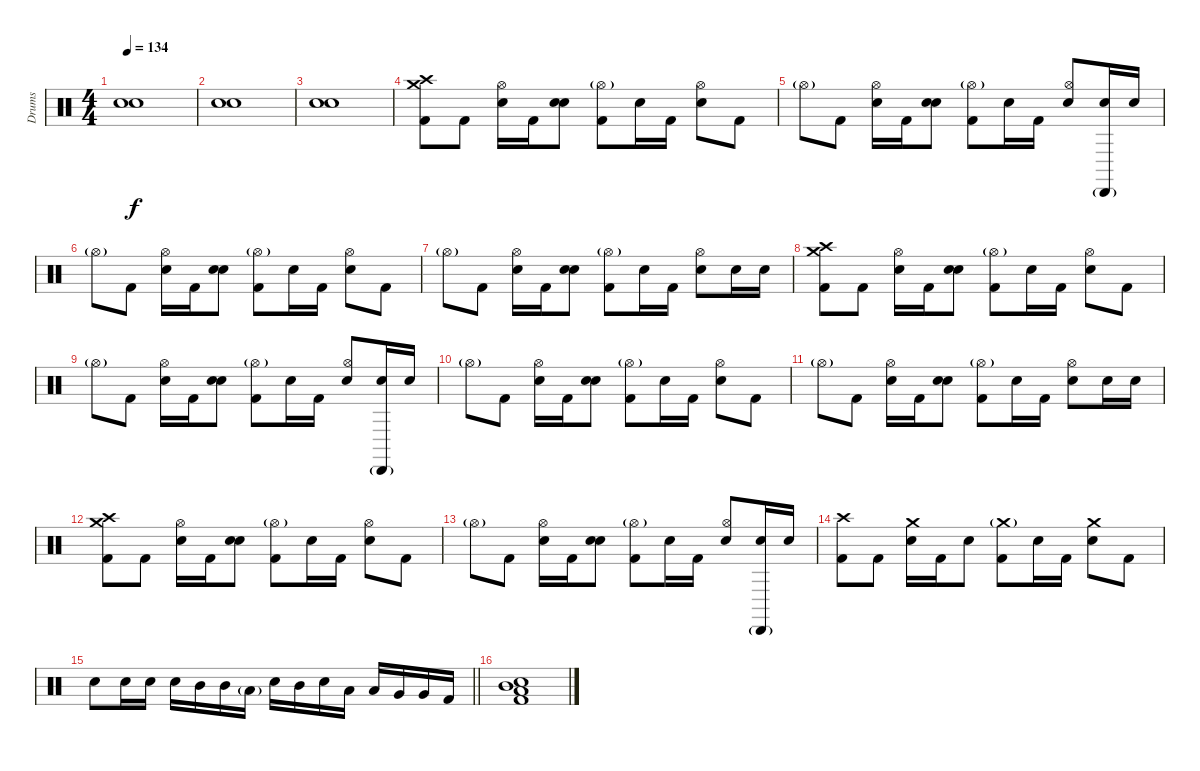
\track ("Drums" "Drums") {instrument percussion}
\staff {score}
\articulation defaults
\ts (4 4)
\tempo 134
\clef neutral
\ks c
("Snare (hit)" "Snare (hit)").1{dy f} |
("Snare (hit)" "Snare (hit)").1 |
("Snare (hit)" "Snare (hit)").1 |
("Crash high (hit)" "Crash medium (hit)" "Kick (hit) 2").8 "Kick (hit) 2".8 ("Hi-Hat (open)" "Snare (hit) 2").16 "Kick (hit) 2".16 ("Snare (hit)" "Snare (hit)").8 ("Hi-Hat (open)"{g} "Kick (hit) 2").8 "Snare (hit)".16 "Kick (hit) 2".16 ("Hi-Hat (open)" "Snare (hit) 2").8 "Kick (hit) 2".8 |
"Hi-Hat (open)"{g}.8 "Kick (hit) 2".8 ("Hi-Hat (open)" "Snare (hit) 2").16 "Kick (hit) 2".16 ("Snare (hit)" "Snare (hit)").8 ("Hi-Hat (open)"{g} "Kick (hit) 2").8 "Snare (hit)".16 "Kick (hit) 2".16 ("Hi-Hat (open)" "Snare (hit) 2").8 ("Cabasa (hit)"{g} "Snare (hit)").16 "Snare (hit) 2".16 |
"Hi-Hat (open)"{g}.8 "Kick (hit) 2".8 ("Hi-Hat (open)" "Snare (hit) 2").16 "Kick (hit) 2".16 ("Snare (hit)" "Snare (hit)").8 ("Hi-Hat (open)"{g} "Kick (hit) 2").8 "Snare (hit)".16 "Kick (hit) 2".16 ("Hi-Hat (open)" "Snare (hit) 2").8 "Kick (hit) 2".8 |
"Hi-Hat (open)"{g}.8 "Kick (hit) 2".8 ("Hi-Hat (open)" "Snare (hit) 2").16 "Kick (hit) 2".16 ("Snare (hit)" "Snare (hit)").8 ("Hi-Hat (open)"{g} "Kick (hit) 2").8 "Snare (hit)".16 "Kick (hit) 2".16 ("Hi-Hat (open)" "Snare (hit) 2").8 "Snare (hit) 2".16 "Snare (hit) 2".16 |
("Crash high (hit)" "Crash medium (hit)" "Kick (hit) 2").8 "Kick (hit) 2".8 ("Hi-Hat (open)" "Snare (hit) 2").16 "Kick (hit) 2".16 ("Snare (hit)" "Snare (hit)").8 ("Hi-Hat (open)"{g} "Kick (hit) 2").8 "Snare (hit)".16 "Kick (hit) 2".16 ("Hi-Hat (open)" "Snare (hit) 2").8 "Kick (hit) 2".8 |
"Hi-Hat (open)"{g}.8 "Kick (hit) 2".8 ("Hi-Hat (open)" "Snare (hit) 2").16 "Kick (hit) 2".16 ("Snare (hit)" "Snare (hit)").8 ("Hi-Hat (open)"{g} "Kick (hit) 2").8 "Snare (hit)".16 "Kick (hit) 2".16 ("Hi-Hat (open)" "Snare (hit) 2").8 ("Cabasa (hit)"{g} "Snare (hit)").16 "Snare (hit) 2".16 |
"Hi-Hat (open)"{g}.8 "Kick (hit) 2".8 ("Hi-Hat (open)" "Snare (hit) 2").16 "Kick (hit) 2".16 ("Snare (hit)" "Snare (hit)").8 ("Hi-Hat (open)"{g} "Kick (hit) 2").8 "Snare (hit)".16 "Kick (hit) 2".16 ("Hi-Hat (open)" "Snare (hit) 2").8 "Kick (hit) 2".8 |
"Hi-Hat (open)"{g}.8 "Kick (hit) 2".8 ("Hi-Hat (open)" "Snare (hit) 2").16 "Kick (hit) 2".16 ("Snare (hit)" "Snare (hit)").8 ("Hi-Hat (open)"{g} "Kick (hit) 2").8 "Snare (hit)".16 "Kick (hit) 2".16 ("Hi-Hat (open)" "Snare (hit) 2").8 "Snare (hit) 2".16 "Snare (hit) 2".16 |
("Crash high (hit)" "Crash medium (hit)" "Kick (hit) 2").8 "Kick (hit) 2".8 ("Hi-Hat (open)" "Snare (hit) 2").16 "Kick (hit) 2".16 ("Snare (hit)" "Snare (hit)").8 ("Hi-Hat (open)"{g} "Kick (hit) 2").8 "Snare (hit)".16 "Kick (hit) 2".16 ("Hi-Hat (open)" "Snare (hit) 2").8 "Kick (hit) 2".8 |
"Hi-Hat (open)"{g}.8 "Kick (hit) 2".8 ("Hi-Hat (open)" "Snare (hit) 2").16 "Kick (hit) 2".16 ("Snare (hit)" "Snare (hit)").8 ("Hi-Hat (open)"{g} "Kick (hit) 2").8 "Snare (hit)".16 "Kick (hit) 2".16 ("Hi-Hat (open)" "Snare (hit) 2").8 ("Cabasa (hit)"{g} "Snare (hit)").16 "Snare (hit) 2".16 |
("Crash high (hit)" "Kick (hit) 2").8 "Kick (hit) 2".8 ("Crash medium (hit)" "Snare (hit) 2").16 "Kick (hit) 2".16 "Snare (hit)".8 ("Crash medium (hit)"{g} "Kick (hit) 2").8 "Snare (hit)".16 "Kick (hit) 2".16 ("Crash medium (hit)" "Snare (hit) 2").8 "Kick (hit) 2".8 |
\barLineRight lightlight "Snare (hit) 2".8 "Snare (hit) 2".16 "Snare (hit) 2".16 "Snare (hit)".16 "Mid Tom (hit)".16 "Mid Tom (hit)".16 "Low Tom (hit)"{g}.16 "Snare (hit) 2".16 "Mid Tom (hit)".16 "Snare (hit) 2".16 "Low Tom (hit)".16 "Low Tom (hit)".16 "Very Low Tom (hit)".16 "Very Low Tom (hit)".16 "Kick (hit) 2".16
|
("Mid Tom (hit)" "Low Tom (hit)" "Snare (hit) 2" "Kick (hit) 2").1
